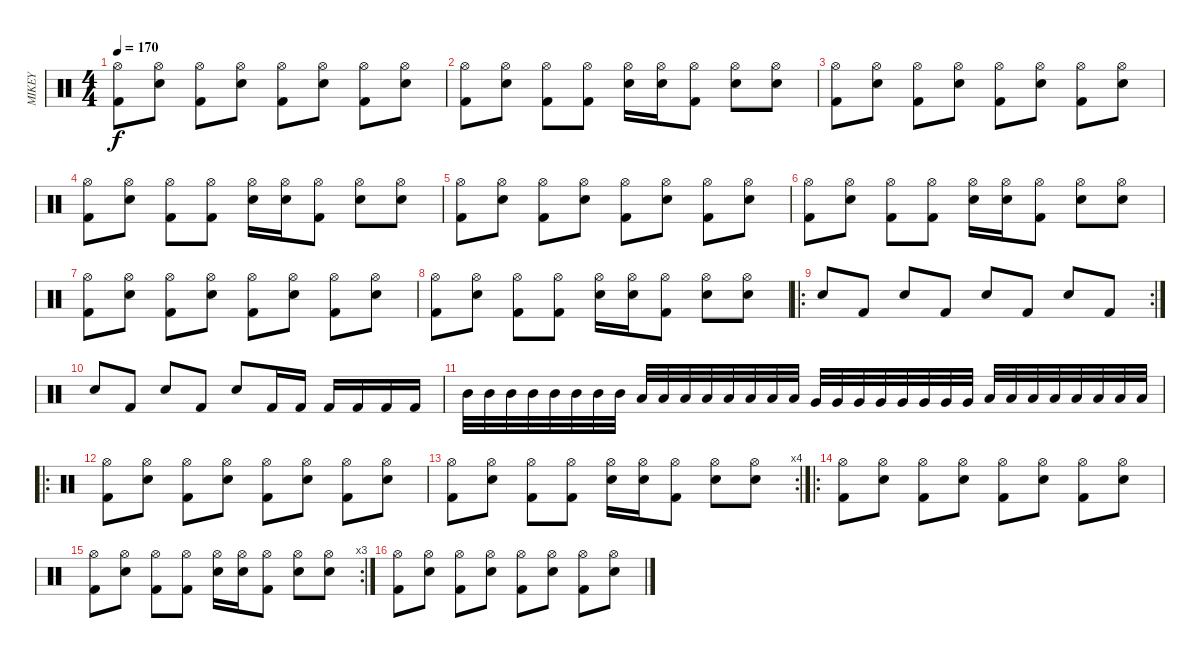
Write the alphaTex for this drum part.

\track ("MIKEY" "MIKEY") {instrument percussion}
\staff {score}
\articulation defaults
\ts (4 4)
\tempo 170
\clef neutral
\ks c
("Hi-Hat (open)" "Kick (hit) 2").8{dy f} ("Hi-Hat (open)" "Electric Snare (hit)").8 ("Hi-Hat (open)" "Kick (hit) 2").8 ("Hi-Hat (open)" "Electric Snare (hit)").8 ("Hi-Hat (open)" "Kick (hit) 2").8 ("Hi-Hat (open)" "Electric Snare (hit)").8 ("Hi-Hat (open)" "Kick (hit) 2").8 ("Hi-Hat (open)" "Electric Snare (hit)").8 |
("Hi-Hat (open)" "Kick (hit) 2").8 ("Hi-Hat (open)" "Electric Snare (hit)").8 ("Hi-Hat (open)" "Kick (hit) 2").8 ("Hi-Hat (open)" "Kick (hit) 2").8 ("Hi-Hat (open)" "Electric Snare (hit)").16 ("Hi-Hat (open)" "Electric Snare (hit)").16 ("Hi-Hat (open)" "Kick (hit) 2").8 ("Hi-Hat (open)" "Electric Snare (hit)").8 ("Hi-Hat (open)" "Electric Snare (hit)").8 |
("Hi-Hat (open)" "Kick (hit) 2").8 ("Hi-Hat (open)" "Electric Snare (hit)").8 ("Hi-Hat (open)" "Kick (hit) 2").8 ("Hi-Hat (open)" "Electric Snare (hit)").8 ("Hi-Hat (open)" "Kick (hit) 2").8 ("Hi-Hat (open)" "Electric Snare (hit)").8 ("Hi-Hat (open)" "Kick (hit) 2").8 ("Hi-Hat (open)" "Electric Snare (hit)").8 |
("Hi-Hat (open)" "Kick (hit) 2").8 ("Hi-Hat (open)" "Electric Snare (hit)").8 ("Hi-Hat (open)" "Kick (hit) 2").8 ("Hi-Hat (open)" "Kick (hit) 2").8 ("Hi-Hat (open)" "Electric Snare (hit)").16 ("Hi-Hat (open)" "Electric Snare (hit)").16 ("Hi-Hat (open)" "Kick (hit) 2").8 ("Hi-Hat (open)" "Electric Snare (hit)").8 ("Hi-Hat (open)" "Electric Snare (hit)").8 |
("Hi-Hat (open)" "Kick (hit) 2").8 ("Hi-Hat (open)" "Electric Snare (hit)").8 ("Hi-Hat (open)" "Kick (hit) 2").8 ("Hi-Hat (open)" "Electric Snare (hit)").8 ("Hi-Hat (open)" "Kick (hit) 2").8 ("Hi-Hat (open)" "Electric Snare (hit)").8 ("Hi-Hat (open)" "Kick (hit) 2").8 ("Hi-Hat (open)" "Electric Snare (hit)").8 |
("Hi-Hat (open)" "Kick (hit) 2").8 ("Hi-Hat (open)" "Electric Snare (hit)").8 ("Hi-Hat (open)" "Kick (hit) 2").8 ("Hi-Hat (open)" "Kick (hit) 2").8 ("Hi-Hat (open)" "Electric Snare (hit)").16 ("Hi-Hat (open)" "Electric Snare (hit)").16 ("Hi-Hat (open)" "Kick (hit) 2").8 ("Hi-Hat (open)" "Electric Snare (hit)").8 ("Hi-Hat (open)" "Electric Snare (hit)").8 |
("Hi-Hat (open)" "Kick (hit) 2").8 ("Hi-Hat (open)" "Electric Snare (hit)").8 ("Hi-Hat (open)" "Kick (hit) 2").8 ("Hi-Hat (open)" "Electric Snare (hit)").8 ("Hi-Hat (open)" "Kick (hit) 2").8 ("Hi-Hat (open)" "Electric Snare (hit)").8 ("Hi-Hat (open)" "Kick (hit) 2").8 ("Hi-Hat (open)" "Electric Snare (hit)").8 |
("Hi-Hat (open)" "Kick (hit) 2").8 ("Hi-Hat (open)" "Electric Snare (hit)").8 ("Hi-Hat (open)" "Kick (hit) 2").8 ("Hi-Hat (open)" "Kick (hit) 2").8 ("Hi-Hat (open)" "Electric Snare (hit)").16 ("Hi-Hat (open)" "Electric Snare (hit)").16 ("Hi-Hat (open)" "Kick (hit) 2").8 ("Hi-Hat (open)" "Electric Snare (hit)").8 ("Hi-Hat (open)" "Electric Snare (hit)").8 |
\ro
\rc 2 "Electric Snare (hit)".8 "Kick (hit) 2".8 "Electric Snare (hit)".8 "Kick (hit) 2".8 "Electric Snare (hit)".8 "Kick (hit) 2".8 "Electric Snare (hit)".8 "Kick (hit) 2".8
|
"Electric Snare (hit)".8 "Kick (hit) 2".8 "Electric Snare (hit)".8 "Kick (hit) 2".8 "Electric Snare (hit)".8 "Kick (hit) 2".16 "Kick (hit) 2".16 "Kick (hit) 2".16 "Kick (hit) 2".16 "Kick (hit) 2".16 "Kick (hit) 2".16 |
"Mid Tom (hit)".32 "Mid Tom (hit)".32 "Mid Tom (hit)".32 "Mid Tom (hit)".32 "Mid Tom (hit)".32 "Mid Tom (hit)".32 "Mid Tom (hit)".32 "Mid Tom (hit)".32 "Low Tom (hit)".32 "Low Tom (hit)".32 "Low Tom (hit)".32 "Low Tom (hit)".32 "Low Tom (hit)".32 "Low Tom (hit)".32 "Low Tom (hit)".32 "Low Tom (hit)".32 "Very Low Tom (hit)".32 "Very Low Tom (hit)".32 "Very Low Tom (hit)".32 "Very Low Tom (hit)".32 "Very Low Tom (hit)".32 "Very Low Tom (hit)".32 "Very Low Tom (hit)".32 "Very Low Tom (hit)".32 "Low Floor Tom (hit)".32 "Low Floor Tom (hit)".32 "Low Floor Tom (hit)".32 "Low Floor Tom (hit)".32 "Low Floor Tom (hit)".32 "Low Floor Tom (hit)".32 "Low Floor Tom (hit)".32 "Low Floor Tom (hit)".32 |
\ro
("Hi-Hat (open)" "Kick (hit) 2").8 ("Hi-Hat (open)" "Electric Snare (hit)").8 ("Hi-Hat (open)" "Kick (hit) 2").8 ("Hi-Hat (open)" "Electric Snare (hit)").8 ("Hi-Hat (open)" "Kick (hit) 2").8 ("Hi-Hat (open)" "Electric Snare (hit)").8 ("Hi-Hat (open)" "Kick (hit) 2").8 ("Hi-Hat (open)" "Electric Snare (hit)").8 |
\rc 4
("Hi-Hat (open)" "Kick (hit) 2").8 ("Hi-Hat (open)" "Electric Snare (hit)").8 ("Hi-Hat (open)" "Kick (hit) 2").8 ("Hi-Hat (open)" "Kick (hit) 2").8 ("Hi-Hat (open)" "Electric Snare (hit)").16 ("Hi-Hat (open)" "Electric Snare (hit)").16 ("Hi-Hat (open)" "Kick (hit) 2").8 ("Hi-Hat (open)" "Electric Snare (hit)").8 ("Hi-Hat (open)" "Electric Snare (hit)").8 |
\ro
("Hi-Hat (open)" "Kick (hit) 2").8 ("Hi-Hat (open)" "Electric Snare (hit)").8 ("Hi-Hat (open)" "Kick (hit) 2").8 ("Hi-Hat (open)" "Electric Snare (hit)").8 ("Hi-Hat (open)" "Kick (hit) 2").8 ("Hi-Hat (open)" "Electric Snare (hit)").8 ("Hi-Hat (open)" "Kick (hit) 2").8 ("Hi-Hat (open)" "Electric Snare (hit)").8 |
\rc 3
("Hi-Hat (open)" "Kick (hit) 2").8 ("Hi-Hat (open)" "Electric Snare (hit)").8 ("Hi-Hat (open)" "Kick (hit) 2").8 ("Hi-Hat (open)" "Kick (hit) 2").8 ("Hi-Hat (open)" "Electric Snare (hit)").16 ("Hi-Hat (open)" "Electric Snare (hit)").16 ("Hi-Hat (open)" "Kick (hit) 2").8 ("Hi-Hat (open)" "Electric Snare (hit)").8 ("Hi-Hat (open)" "Electric Snare (hit)").8 |
("Hi-Hat (open)" "Kick (hit) 2").8 ("Hi-Hat (open)" "Electric Snare (hit)").8 ("Hi-Hat (open)" "Kick (hit) 2").8 ("Hi-Hat (open)" "Electric Snare (hit)").8 ("Hi-Hat (open)" "Kick (hit) 2").8 ("Hi-Hat (open)" "Electric Snare (hit)").8 ("Hi-Hat (open)" "Kick (hit) 2").8 ("Hi-Hat (open)" "Electric Snare (hit)").8
